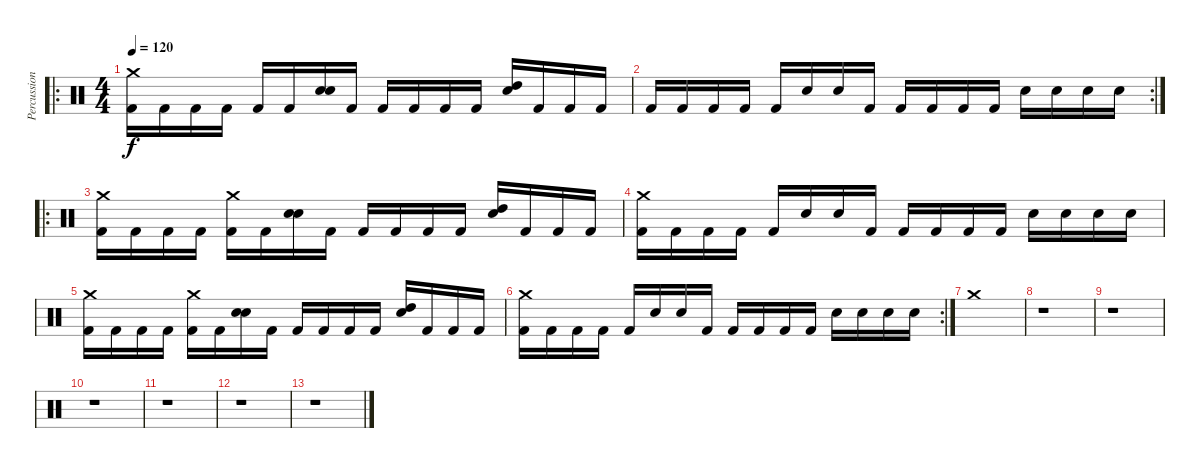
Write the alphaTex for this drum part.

\track ("Percussion" "Percussion") {instrument percussion}
\staff {score}
\articulation defaults
\ro
\ts (4 4)
\tempo 120
\clef neutral
\ks c
("Crash medium (hit)" "Kick (hit) 2").16{dy f} "Kick (hit) 2".16 "Kick (hit) 2".16 "Kick (hit) 2".16 "Kick (hit) 2".16 "Kick (hit) 2".16 ("Electric Snare (hit)" "Snare (hit) 2").16 "Kick (hit) 2".16 "Kick (hit) 2".16 "Kick (hit) 2".16 "Kick (hit) 2".16 "Kick (hit) 2".16 ("Electric Snare (hit)" "High Tom (hit)").16 "Kick (hit) 2".16 "Kick (hit) 2".16 "Kick (hit) 2".16 |
\rc 2 "Kick (hit) 2".16 "Kick (hit) 2".16 "Kick (hit) 2".16 "Kick (hit) 2".16 "Kick (hit) 2".16 "Electric Snare (hit)".16 "Electric Snare (hit)".16 "Kick (hit) 2".16 "Kick (hit) 2".16 "Kick (hit) 2".16 "Kick (hit) 2".16 "Kick (hit) 2".16 "Electric Snare (hit)".16 "Snare (hit) 2".16 "Snare (hit) 2".16 "Electric Snare (hit)".16
|
\ro
("Crash medium (hit)" "Kick (hit) 2").16 "Kick (hit) 2".16 "Kick (hit) 2".16 "Kick (hit) 2".16 ("Crash medium (hit)" "Kick (hit) 2").16 "Kick (hit) 2".16 ("Electric Snare (hit)" "Snare (hit) 2").16 "Kick (hit) 2".16 "Kick (hit) 2".16 "Kick (hit) 2".16 "Kick (hit) 2".16 "Kick (hit) 2".16 ("Electric Snare (hit)" "High Tom (hit)").16 "Kick (hit) 2".16 "Kick (hit) 2".16 "Kick (hit) 2".16 |
("Crash medium (hit)" "Kick (hit) 2").16 "Kick (hit) 2".16 "Kick (hit) 2".16 "Kick (hit) 2".16 "Kick (hit) 2".16 "Electric Snare (hit)".16 "Electric Snare (hit)".16 "Kick (hit) 2".16 "Kick (hit) 2".16 "Kick (hit) 2".16 "Kick (hit) 2".16 "Kick (hit) 2".16 "Electric Snare (hit)".16 "Snare (hit) 2".16 "Snare (hit) 2".16 "Electric Snare (hit)".16 |
("Crash medium (hit)" "Kick (hit) 2").16 "Kick (hit) 2".16 "Kick (hit) 2".16 "Kick (hit) 2".16 ("Crash medium (hit)" "Kick (hit) 2").16 "Kick (hit) 2".16 ("Electric Snare (hit)" "Snare (hit) 2").16 "Kick (hit) 2".16 "Kick (hit) 2".16 "Kick (hit) 2".16 "Kick (hit) 2".16 "Kick (hit) 2".16 ("Electric Snare (hit)" "High Tom (hit)").16 "Kick (hit) 2".16 "Kick (hit) 2".16 "Kick (hit) 2".16 |
\rc 2
("Crash medium (hit)" "Kick (hit) 2").16 "Kick (hit) 2".16 "Kick (hit) 2".16 "Kick (hit) 2".16 "Kick (hit) 2".16 "Electric Snare (hit)".16 "Electric Snare (hit)".16 "Kick (hit) 2".16 "Kick (hit) 2".16 "Kick (hit) 2".16 "Kick (hit) 2".16 "Kick (hit) 2".16 "Electric Snare (hit)".16 "Snare (hit) 2".16 "Snare (hit) 2".16 "Electric Snare (hit)".16 |
"Crash medium (hit)".1 |
r.1 |
r.1 |
r.1 |
r.1 |
r.1 |
r.1
